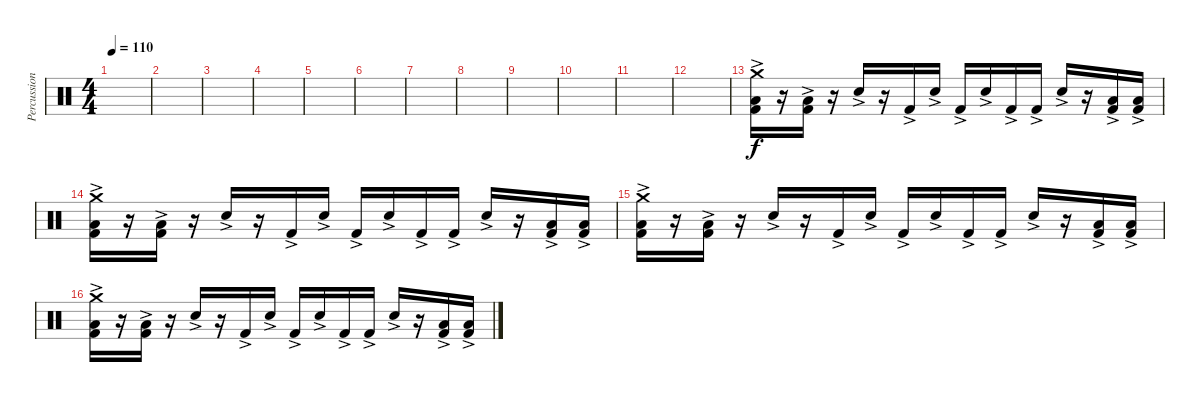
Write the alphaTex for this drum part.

\track ("Percussion" "Percussion") {instrument percussion}
\staff {score}
\articulation defaults
\ts (4 4)
\tempo 110
\clef neutral
\ks c
|
|
|
|
|
|
|
|
|
|
|
|
("Crash medium (hit)" "Kick (hit) 2"{ac} "Low Floor Tom (hit)").16 r.16 ("Kick (hit) 2"{ac} "Low Floor Tom (hit)").16 r.16 "Snare (hit) 2"{ac}.16 r.16 "Kick (hit) 2"{ac}.16 "Snare (hit) 2"{ac}.16 "Kick (hit) 2"{ac}.16 "Snare (hit) 2"{ac}.16 "Kick (hit) 2"{ac}.16 "Kick (hit) 2"{ac}.16 "Snare (hit) 2"{ac}.16 r.16 ("Kick (hit) 2"{ac} "Low Floor Tom (hit)").16 ("Kick (hit) 2"{ac} "Low Floor Tom (hit)").16 |
("Crash medium (hit)" "Kick (hit) 2"{ac} "Low Floor Tom (hit)").16 r.16 ("Kick (hit) 2"{ac} "Low Floor Tom (hit)").16 r.16 "Snare (hit) 2"{ac}.16 r.16 "Kick (hit) 2"{ac}.16 "Snare (hit) 2"{ac}.16 "Kick (hit) 2"{ac}.16 "Snare (hit) 2"{ac}.16 "Kick (hit) 2"{ac}.16 "Kick (hit) 2"{ac}.16 "Snare (hit) 2"{ac}.16 r.16 ("Kick (hit) 2"{ac} "Low Floor Tom (hit)").16 ("Kick (hit) 2"{ac} "Low Floor Tom (hit)").16 |
("Crash medium (hit)" "Kick (hit) 2"{ac} "Low Floor Tom (hit)").16 r.16 ("Kick (hit) 2"{ac} "Low Floor Tom (hit)").16 r.16 "Snare (hit) 2"{ac}.16 r.16 "Kick (hit) 2"{ac}.16 "Snare (hit) 2"{ac}.16 "Kick (hit) 2"{ac}.16 "Snare (hit) 2"{ac}.16 "Kick (hit) 2"{ac}.16 "Kick (hit) 2"{ac}.16 "Snare (hit) 2"{ac}.16 r.16 ("Kick (hit) 2"{ac} "Low Floor Tom (hit)").16 ("Kick (hit) 2"{ac} "Low Floor Tom (hit)").16 |
("Crash medium (hit)" "Kick (hit) 2"{ac} "Low Floor Tom (hit)").16 r.16 ("Kick (hit) 2"{ac} "Low Floor Tom (hit)").16 r.16 "Snare (hit) 2"{ac}.16 r.16 "Kick (hit) 2"{ac}.16 "Snare (hit) 2"{ac}.16 "Kick (hit) 2"{ac}.16 "Snare (hit) 2"{ac}.16 "Kick (hit) 2"{ac}.16 "Kick (hit) 2"{ac}.16 "Snare (hit) 2"{ac}.16 r.16 ("Kick (hit) 2"{ac} "Low Floor Tom (hit)").16 ("Kick (hit) 2"{ac} "Low Floor Tom (hit)").16
